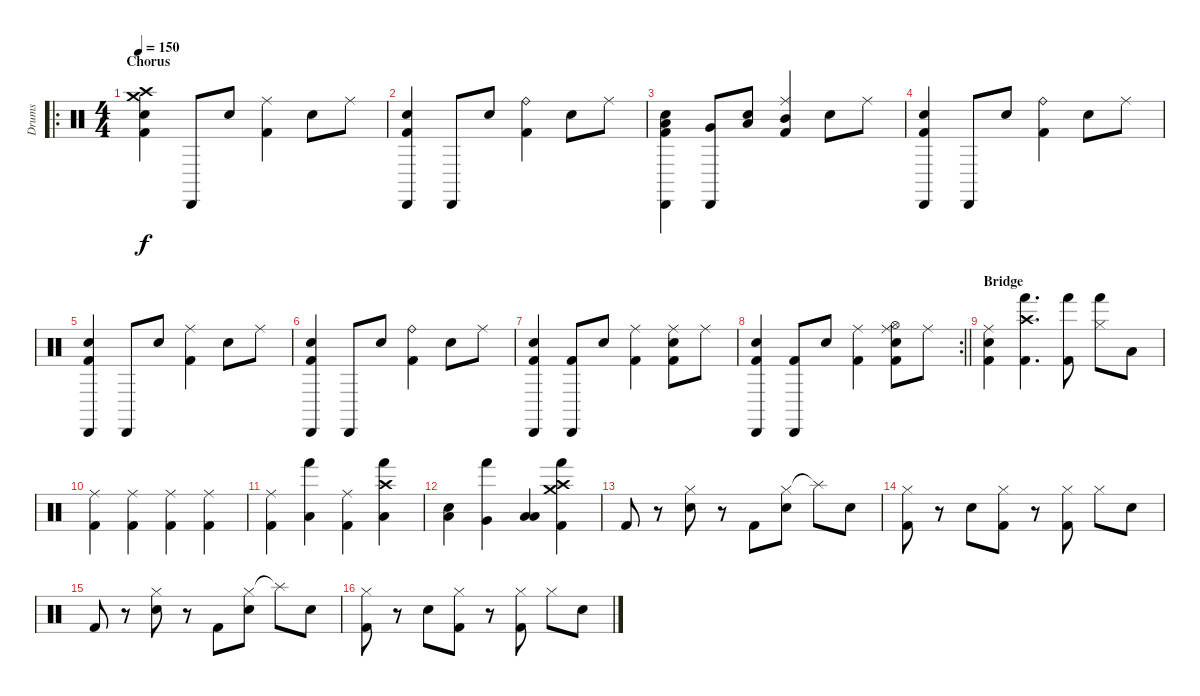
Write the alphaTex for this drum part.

\track ("Drums" "Drums") {instrument percussion}
\staff {score}
\articulation defaults
\ro
\ts (4 4)
\section ("" "Chorus")
\tempo 150
\clef neutral
\ks c
("Crash medium (hit)" "Crash high (hit)" "Electric Snare (hit)" "Kick (hit) 2").4{dy f} "Cabasa (hit)".8 "Electric Snare (hit)".8 ("Ride (middle)" "Kick (hit) 2").4 "Electric Snare (hit)".8 "Ride (middle)".8 |
("Cabasa (hit)" "Electric Snare (hit)" "Kick (hit) 2").4 "Cabasa (hit)".8 "Electric Snare (hit)".8 ("Ride (bell)" "Kick (hit) 2").4 "Electric Snare (hit)".8 "Ride (middle)".8 |
("Cabasa (hit)" "Low Floor Tom (hit)" "Electric Snare (hit)" "Kick (hit) 2").4 ("Cabasa (hit)" "Very Low Tom (hit)").8 ("Electric Snare (hit)" "Low Tom (hit)").8 ("Ride (middle)" "Mid Tom (hit)" "Kick (hit) 2").4 "Electric Snare (hit)".8 "Ride (middle)".8 |
("Cabasa (hit)" "Electric Snare (hit)" "Kick (hit) 2").4 "Cabasa (hit)".8 "Electric Snare (hit)".8 ("Ride (bell)" "Kick (hit) 2").4 "Electric Snare (hit)".8 "Ride (middle)".8 |
("Cabasa (hit)" "Electric Snare (hit)" "Kick (hit) 2").4 "Cabasa (hit)".8 "Electric Snare (hit)".8 ("Ride (middle)" "Kick (hit) 2").4 "Electric Snare (hit)".8 "Ride (middle)".8 |
("Cabasa (hit)" "Electric Snare (hit)" "Kick (hit) 2").4 "Cabasa (hit)".8 "Electric Snare (hit)".8 ("Ride (bell)" "Kick (hit) 2").4 "Electric Snare (hit)".8 "Ride (middle)".8 |
("Cabasa (hit)" "Electric Snare (hit)" "Kick (hit) 2").4 ("Cabasa (hit)" "Kick (hit) 2").8 "Electric Snare (hit)".8 ("Ride (middle)" "Kick (hit) 2").4 ("Ride (middle)" "Electric Snare (hit)" "Kick (hit) 2").8 "Ride (middle)".8 |
\rc 2
\barLineRight lightlight
("Cabasa (hit)" "Electric Snare (hit)" "Kick (hit) 2").4 ("Cabasa (hit)" "Kick (hit) 2").8 "Electric Snare (hit)".8 ("Ride (middle)" "Kick (hit) 2").4 ("Ride (middle)" "Electric Snare (hit)" "Hi-Hat (open)" "Kick (hit) 2").8 "Ride (middle)".8 |
\section ("" "Bridge")
("Ride (middle)" "Kick (hit) 2" "Electric Snare (hit)").4 ("Hand (hit)" "Kick (hit) 2" "Crash high (hit)").4{d} ("Hand (hit)" "Kick (hit) 2").8 ("Hand (hit)" "Hi-Hat (closed)").8 "Low Floor Tom (hit)".8 |
("Ride (middle)" "Kick (hit) 2").4 ("Ride (middle)" "Kick (hit) 2").4 ("Ride (middle)" "Kick (hit) 2").4 ("Ride (middle)" "Kick (hit) 2").4 |
("Ride (middle)" "Kick (hit) 2").4 ("Hand (hit)" "Low Floor Tom (hit)").4 ("Ride (middle)" "Kick (hit) 2").4 ("Hand (hit)" "Crash high (hit)" "Low Floor Tom (hit)").4 |
("Low Floor Tom (hit)" "Electric Snare (hit)").4 ("Very Low Tom (hit)" "Hand (hit)").4 ("Low Tom (hit)" "Low Floor Tom (hit)").4 ("Crash high (hit)" "Crash medium (hit)" "Kick (hit) 2" "Hand (hit)").4 |
"Kick (hit) 2".8 r.8 ("Hi-Hat (closed)" "Electric Snare (hit)").8 r.8 "Kick (hit) 2".8 ("Hi-Hat (closed)" "Electric Snare (hit)").8 "Splash (hit)"{t}.8 "Electric Snare (hit)".8 |
("Hi-Hat (closed)" "Kick (hit) 2").8 r.8 "Electric Snare (hit)".8 ("Hi-Hat (closed)" "Kick (hit) 2").8 r.8 ("Hi-Hat (closed)" "Kick (hit) 2").8 "Hi-Hat (closed)".8 "Electric Snare (hit)".8 |
"Kick (hit) 2".8 r.8 ("Hi-Hat (closed)" "Electric Snare (hit)").8 r.8 "Kick (hit) 2".8 ("Hi-Hat (closed)" "Electric Snare (hit)").8 "Splash (hit)"{t}.8 "Electric Snare (hit)".8 |
("Hi-Hat (closed)" "Kick (hit) 2").8 r.8 "Electric Snare (hit)".8 ("Hi-Hat (closed)" "Kick (hit) 2").8 r.8 ("Hi-Hat (closed)" "Kick (hit) 2").8 "Hi-Hat (closed)".8 "Electric Snare (hit)".8
